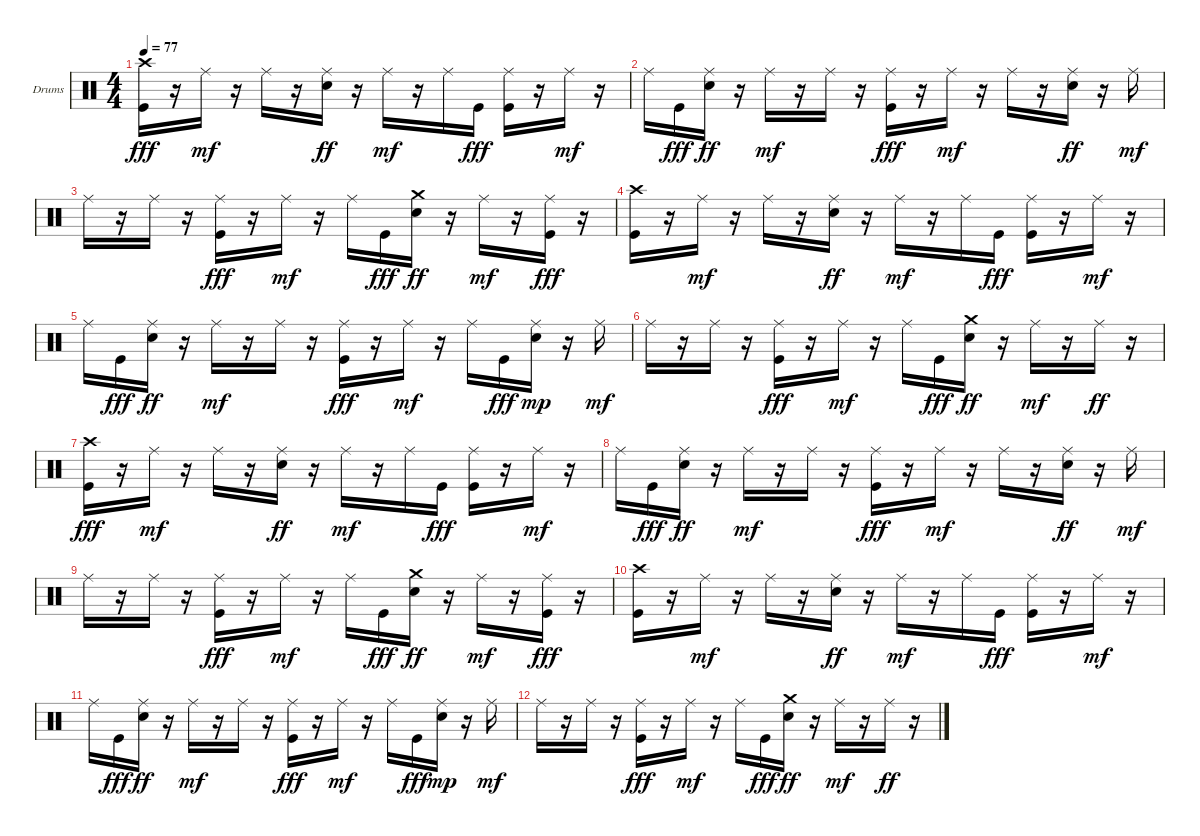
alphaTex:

\bracketExtendMode groupsimilarinstruments
\firstSystemTrackNameOrientation horizontal
\otherSystemsTrackNameOrientation horizontal
\track ("Drumkit" "Drums") {instrument percussion}
\staff {score}
\articulation defaults
\ts (4 4)
\tempo 77
\clef neutral
\ks c
("Kick (hit)" "Crash high (hit)").16{dy fff} r.16 "Ride (middle)".16{dy mf} r.16 "Ride (middle)".16 r.16 ("Snare (hit) 2" "Ride (middle)").16{dy ff} r.16 "Ride (middle)".16{dy mf} r.16 "Ride (middle)".16 "Kick (hit)".16{dy fff} ("Kick (hit)" "Ride (middle)").16 r.16 "Ride (middle)".16{dy mf} r.16 |
"Ride (middle)".16 "Kick (hit)".16{dy fff} ("Snare (hit) 2" "Ride (middle)").16{dy ff} r.16 "Ride (middle)".16{dy mf} r.16 "Ride (middle)".16 r.16 ("Kick (hit)" "Ride (middle)").16{dy fff} r.16 "Ride (middle)".16{dy mf} r.16 "Ride (middle)".16 r.16 ("Snare (hit) 2" "Ride (middle)").16{dy ff} r.16 "Ride (middle)".16{dy mf} |
"Ride (middle)".16 r.16 "Ride (middle)".16 r.16 ("Kick (hit)" "Ride (middle)").16{dy fff} r.16 "Ride (middle)".16{dy mf} r.16 "Ride (middle)".16 "Kick (hit)".16{dy fff} ("Snare (hit) 2" "Crash medium (hit)").16{dy ff} r.16 "Ride (middle)".16{dy mf} r.16 ("Kick (hit)" "Ride (middle)").16{dy fff} r.16 |
("Kick (hit)" "Crash high (hit)").16 r.16 "Ride (middle)".16{dy mf} r.16 "Ride (middle)".16 r.16 ("Snare (hit) 2" "Ride (middle)").16{dy ff} r.16 "Ride (middle)".16{dy mf} r.16 "Ride (middle)".16 "Kick (hit)".16{dy fff} ("Kick (hit)" "Ride (middle)").16 r.16 "Ride (middle)".16{dy mf} r.16 |
"Ride (middle)".16 "Kick (hit)".16{dy fff} ("Snare (hit) 2" "Ride (middle)").16{dy ff} r.16 "Ride (middle)".16{dy mf} r.16 "Ride (middle)".16 r.16 ("Kick (hit)" "Ride (middle)").16{dy fff} r.16 "Ride (middle)".16{dy mf} r.16 "Ride (middle)".16 "Kick (hit)".16{dy fff} ("Snare (hit) 2" "Ride (middle)").16{dy mp} r.16 "Ride (middle)".16{dy mf} |
"Ride (middle)".16 r.16 "Ride (middle)".16 r.16 ("Kick (hit)" "Ride (middle)").16{dy fff} r.16 "Ride (middle)".16{dy mf} r.16 "Ride (middle)".16 "Kick (hit)".16{dy fff} ("Snare (hit) 2" "Crash medium (hit)").16{dy ff} r.16 "Ride (middle)".16{dy mf} r.16 "Ride (middle)".16{dy ff} r.16 |
("Kick (hit)" "Crash high (hit)").16{dy fff} r.16 "Ride (middle)".16{dy mf} r.16 "Ride (middle)".16 r.16 ("Snare (hit) 2" "Ride (middle)").16{dy ff} r.16 "Ride (middle)".16{dy mf} r.16 "Ride (middle)".16 "Kick (hit)".16{dy fff} ("Kick (hit)" "Ride (middle)").16 r.16 "Ride (middle)".16{dy mf} r.16 |
"Ride (middle)".16 "Kick (hit)".16{dy fff} ("Snare (hit) 2" "Ride (middle)").16{dy ff} r.16 "Ride (middle)".16{dy mf} r.16 "Ride (middle)".16 r.16 ("Kick (hit)" "Ride (middle)").16{dy fff} r.16 "Ride (middle)".16{dy mf} r.16 "Ride (middle)".16 r.16 ("Snare (hit) 2" "Ride (middle)").16{dy ff} r.16 "Ride (middle)".16{dy mf} |
"Ride (middle)".16 r.16 "Ride (middle)".16 r.16 ("Kick (hit)" "Ride (middle)").16{dy fff} r.16 "Ride (middle)".16{dy mf} r.16 "Ride (middle)".16 "Kick (hit)".16{dy fff} ("Snare (hit) 2" "Crash medium (hit)").16{dy ff} r.16 "Ride (middle)".16{dy mf} r.16 ("Kick (hit)" "Ride (middle)").16{dy fff} r.16 |
("Kick (hit)" "Crash high (hit)").16 r.16 "Ride (middle)".16{dy mf} r.16 "Ride (middle)".16 r.16 ("Snare (hit) 2" "Ride (middle)").16{dy ff} r.16 "Ride (middle)".16{dy mf} r.16 "Ride (middle)".16 "Kick (hit)".16{dy fff} ("Kick (hit)" "Ride (middle)").16 r.16 "Ride (middle)".16{dy mf} r.16 |
"Ride (middle)".16 "Kick (hit)".16{dy fff} ("Snare (hit) 2" "Ride (middle)").16{dy ff} r.16 "Ride (middle)".16{dy mf} r.16 "Ride (middle)".16 r.16 ("Kick (hit)" "Ride (middle)").16{dy fff} r.16 "Ride (middle)".16{dy mf} r.16 "Ride (middle)".16 "Kick (hit)".16{dy fff} ("Snare (hit) 2" "Ride (middle)").16{dy mp} r.16 "Ride (middle)".16{dy mf} |
"Ride (middle)".16 r.16 "Ride (middle)".16 r.16 ("Kick (hit)" "Ride (middle)").16{dy fff} r.16 "Ride (middle)".16{dy mf} r.16 "Ride (middle)".16 "Kick (hit)".16{dy fff} ("Snare (hit) 2" "Crash medium (hit)").16{dy ff} r.16 "Ride (middle)".16{dy mf} r.16 "Ride (middle)".16{dy ff} r.16
